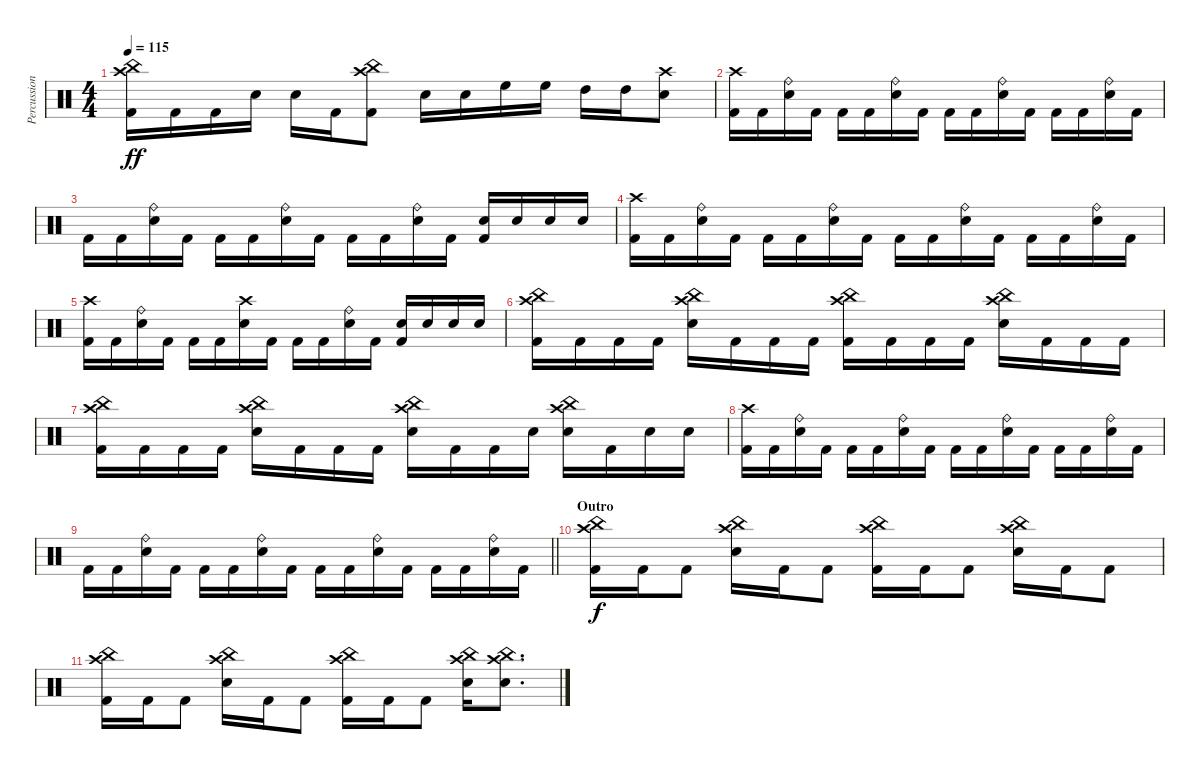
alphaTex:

\track ("Percussion" "Percussion") {instrument percussion}
\staff {score}
\articulation defaults
\ts (4 4)
\tempo 115
\clef neutral
\ks c
("Kick (hit) 2" "Crash high (hit)" "China (hit)").16{dy ff} "Kick (hit) 2".16 "Kick (hit) 2".16 "Electric Snare (hit)".16 "Electric Snare (hit)".16 "Kick (hit) 2".16 ("Kick (hit) 2" "Crash high (hit)" "China (hit)").8 "Electric Snare (hit)".16 "Electric Snare (hit)".16 "High Floor Tom (hit)".16 "High Floor Tom (hit)".16 "High Tom (hit)".16 "High Tom (hit)".16 ("Electric Snare (hit)" "Crash high (hit)").8 |
("Kick (hit) 2" "Crash high (hit)").16 "Kick (hit) 2".16 ("Electric Snare (hit)" "Ride (bell)").16 "Kick (hit) 2".16 "Kick (hit) 2".16 "Kick (hit) 2".16 ("Electric Snare (hit)" "Ride (bell)").16 "Kick (hit) 2".16 "Kick (hit) 2".16 "Kick (hit) 2".16 ("Electric Snare (hit)" "Ride (bell)").16 "Kick (hit) 2".16 "Kick (hit) 2".16 "Kick (hit) 2".16 ("Electric Snare (hit)" "Ride (bell)").16 "Kick (hit) 2".16 |
"Kick (hit) 2".16 "Kick (hit) 2".16 ("Electric Snare (hit)" "Ride (bell)").16 "Kick (hit) 2".16 "Kick (hit) 2".16 "Kick (hit) 2".16 ("Electric Snare (hit)" "Ride (bell)").16 "Kick (hit) 2".16 "Kick (hit) 2".16 "Kick (hit) 2".16 ("Electric Snare (hit)" "Ride (bell)").16 "Kick (hit) 2".16 ("Electric Snare (hit)" "Kick (hit) 2").16 "Electric Snare (hit)".16 "Electric Snare (hit)".16 "Electric Snare (hit)".16 |
("Kick (hit) 2" "Crash high (hit)").16 "Kick (hit) 2".16 ("Electric Snare (hit)" "Ride (bell)").16 "Kick (hit) 2".16 "Kick (hit) 2".16 "Kick (hit) 2".16 ("Electric Snare (hit)" "Ride (bell)").16 "Kick (hit) 2".16 "Kick (hit) 2".16 "Kick (hit) 2".16 ("Electric Snare (hit)" "Ride (bell)").16 "Kick (hit) 2".16 "Kick (hit) 2".16 "Kick (hit) 2".16 ("Electric Snare (hit)" "Ride (bell)").16 "Kick (hit) 2".16 |
("Kick (hit) 2" "Crash high (hit)").16 "Kick (hit) 2".16 ("Electric Snare (hit)" "Ride (bell)").16 "Kick (hit) 2".16 "Kick (hit) 2".16 "Kick (hit) 2".16 ("Electric Snare (hit)" "Crash high (hit)").16 "Kick (hit) 2".16 "Kick (hit) 2".16 "Kick (hit) 2".16 ("Electric Snare (hit)" "Ride (bell)").16 "Kick (hit) 2".16 ("Electric Snare (hit)" "Kick (hit) 2").16 "Electric Snare (hit)".16 "Electric Snare (hit)".16 "Electric Snare (hit)".16 |
("Kick (hit) 2" "Crash high (hit)" "China (hit)").16 "Kick (hit) 2".16 "Kick (hit) 2".16 "Kick (hit) 2".16 ("Electric Snare (hit)" "Crash high (hit)" "China (hit)").16 "Kick (hit) 2".16 "Kick (hit) 2".16 "Kick (hit) 2".16 ("Kick (hit) 2" "Crash high (hit)" "China (hit)").16 "Kick (hit) 2".16 "Kick (hit) 2".16 "Kick (hit) 2".16 ("Electric Snare (hit)" "Crash high (hit)" "China (hit)").16 "Kick (hit) 2".16 "Kick (hit) 2".16 "Kick (hit) 2".16 |
("Kick (hit) 2" "Crash high (hit)" "China (hit)").16 "Kick (hit) 2".16 "Kick (hit) 2".16 "Kick (hit) 2".16 ("Electric Snare (hit)" "Crash high (hit)" "China (hit)").16 "Kick (hit) 2".16 "Kick (hit) 2".16 "Kick (hit) 2".16 ("Electric Snare (hit)" "Crash high (hit)" "China (hit)").16 "Kick (hit) 2".16 "Kick (hit) 2".16 "Electric Snare (hit)".16 ("Electric Snare (hit)" "Crash high (hit)" "China (hit)").16 "Kick (hit) 2".16 "Electric Snare (hit)".16 "Electric Snare (hit)".16 |
("Kick (hit) 2" "Crash high (hit)").16 "Kick (hit) 2".16 ("Electric Snare (hit)" "Ride (bell)").16 "Kick (hit) 2".16 "Kick (hit) 2".16 "Kick (hit) 2".16 ("Electric Snare (hit)" "Ride (bell)").16 "Kick (hit) 2".16 "Kick (hit) 2".16 "Kick (hit) 2".16 ("Electric Snare (hit)" "Ride (bell)").16 "Kick (hit) 2".16 "Kick (hit) 2".16 "Kick (hit) 2".16 ("Electric Snare (hit)" "Ride (bell)").16 "Kick (hit) 2".16 |
\barLineRight lightlight "Kick (hit) 2".16 "Kick (hit) 2".16
("Electric Snare (hit)" "Ride (bell)").16 "Kick (hit) 2".16 "Kick (hit) 2".16 "Kick (hit) 2".16 ("Electric Snare (hit)" "Ride (bell)").16 "Kick (hit) 2".16 "Kick (hit) 2".16 "Kick (hit) 2".16 ("Electric Snare (hit)" "Ride (bell)").16 "Kick (hit) 2".16 "Kick (hit) 2".16 "Kick (hit) 2".16 ("Electric Snare (hit)" "Ride (bell)").16 "Kick (hit) 2".16 |
\section ("" "Outro")
("Kick (hit) 2" "Crash high (hit)" "China (hit)").16{dy f} "Kick (hit) 2".16 "Kick (hit) 2".8 ("Electric Snare (hit)" "Crash high (hit)" "China (hit)").16 "Kick (hit) 2".16 "Kick (hit) 2".8 ("Kick (hit) 2" "Crash high (hit)" "China (hit)").16 "Kick (hit) 2".16 "Kick (hit) 2".8 ("Electric Snare (hit)" "Crash high (hit)" "China (hit)").16 "Kick (hit) 2".16 "Kick (hit) 2".8 |
("Kick (hit) 2" "Crash high (hit)" "China (hit)").16 "Kick (hit) 2".16 "Kick (hit) 2".8 ("Electric Snare (hit)" "Crash high (hit)" "China (hit)").16 "Kick (hit) 2".16 "Kick (hit) 2".8 ("Kick (hit) 2" "Crash high (hit)" "China (hit)").16 "Kick (hit) 2".16 "Kick (hit) 2".8 ("Electric Snare (hit)" "Crash high (hit)" "China (hit)").16 ("Electric Snare (hit)" "Crash high (hit)" "China (hit)").8{d}
